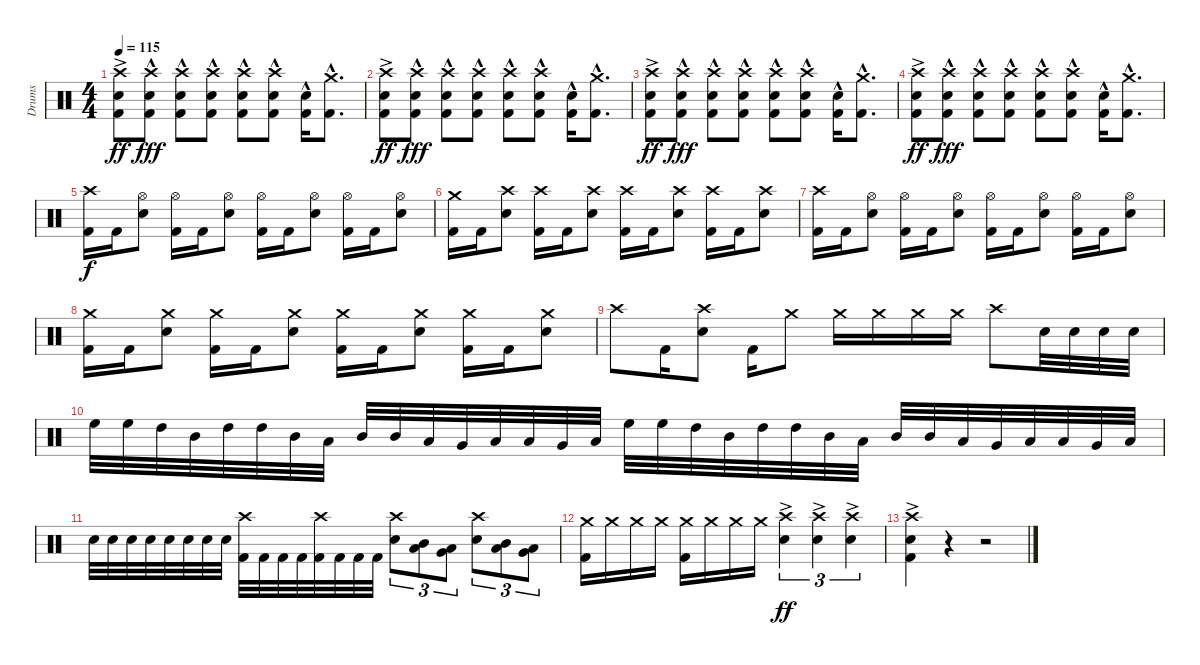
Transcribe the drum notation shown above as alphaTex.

\track ("Drums" "Drums") {instrument percussion}
\staff {score}
\articulation defaults
\ts (4 4)
\tempo 115
\clef neutral
\ks c
("Crash high (hit)" "Electric Snare (hit)" "Kick (hit) 2"{ac}).8{dy ff} ("Crash high (hit)" "Electric Snare (hit)" "Kick (hit) 2"{hac}).8{dy fff} ("Crash high (hit)" "Electric Snare (hit)" "Kick (hit) 2"{hac}).8 ("Crash high (hit)" "Electric Snare (hit)" "Kick (hit) 2"{hac}).8 ("Crash high (hit)" "Electric Snare (hit)" "Kick (hit) 2"{hac}).8 ("Crash high (hit)" "Electric Snare (hit)" "Kick (hit) 2"{hac}).8 ("Electric Snare (hit)" "Kick (hit) 2"{hac}).16 ("Crash medium (hit)" "Kick (hit) 2"{hac}).8{d} |
("Crash high (hit)" "Electric Snare (hit)" "Kick (hit) 2"{ac}).8{dy ff} ("Crash high (hit)" "Electric Snare (hit)" "Kick (hit) 2"{hac}).8{dy fff} ("Crash high (hit)" "Electric Snare (hit)" "Kick (hit) 2"{hac}).8 ("Crash high (hit)" "Electric Snare (hit)" "Kick (hit) 2"{hac}).8 ("Crash high (hit)" "Electric Snare (hit)" "Kick (hit) 2"{hac}).8 ("Crash high (hit)" "Electric Snare (hit)" "Kick (hit) 2"{hac}).8 ("Electric Snare (hit)" "Kick (hit) 2"{hac}).16 ("Crash medium (hit)" "Kick (hit) 2"{hac}).8{d} |
("Crash high (hit)" "Electric Snare (hit)" "Kick (hit) 2"{ac}).8{dy ff} ("Crash high (hit)" "Electric Snare (hit)" "Kick (hit) 2"{hac}).8{dy fff} ("Crash high (hit)" "Electric Snare (hit)" "Kick (hit) 2"{hac}).8 ("Crash high (hit)" "Electric Snare (hit)" "Kick (hit) 2"{hac}).8 ("Crash high (hit)" "Electric Snare (hit)" "Kick (hit) 2"{hac}).8 ("Crash high (hit)" "Electric Snare (hit)" "Kick (hit) 2"{hac}).8 ("Electric Snare (hit)" "Kick (hit) 2"{hac}).16 ("Crash medium (hit)" "Kick (hit) 2"{hac}).8{d} |
("Crash high (hit)" "Electric Snare (hit)" "Kick (hit) 2"{ac}).8{dy ff} ("Crash high (hit)" "Electric Snare (hit)" "Kick (hit) 2"{hac}).8{dy fff} ("Crash high (hit)" "Electric Snare (hit)" "Kick (hit) 2"{hac}).8 ("Crash high (hit)" "Electric Snare (hit)" "Kick (hit) 2"{hac}).8 ("Crash high (hit)" "Electric Snare (hit)" "Kick (hit) 2"{hac}).8 ("Crash high (hit)" "Electric Snare (hit)" "Kick (hit) 2"{hac}).8 ("Electric Snare (hit)" "Kick (hit) 2"{hac}).16 ("Crash medium (hit)" "Kick (hit) 2"{hac}).8{d} |
("Crash high (hit)" "Kick (hit) 2").16{dy f} "Kick (hit) 2".16 ("Hi-Hat (open)" "Electric Snare (hit)").8 ("Hi-Hat (open)" "Kick (hit) 2").16 "Kick (hit) 2".16 ("Hi-Hat (open)" "Electric Snare (hit)").8 ("Hi-Hat (open)" "Kick (hit) 2").16 "Kick (hit) 2".16 ("Hi-Hat (open)" "Electric Snare (hit)").8 ("Hi-Hat (open)" "Kick (hit) 2").16 "Kick (hit) 2".16 ("Hi-Hat (open)" "Electric Snare (hit)").8 |
("Crash medium (hit)" "Kick (hit) 2").16 "Kick (hit) 2".16 ("Crash high (hit)" "Electric Snare (hit)").8 ("Crash high (hit)" "Kick (hit) 2").16 "Kick (hit) 2".16 ("Crash high (hit)" "Electric Snare (hit)").8 ("Crash high (hit)" "Kick (hit) 2").16 "Kick (hit) 2".16 ("Crash high (hit)" "Electric Snare (hit)").8 ("Crash high (hit)" "Kick (hit) 2").16 "Kick (hit) 2".16 ("Crash high (hit)" "Electric Snare (hit)").8 |
("Crash high (hit)" "Kick (hit) 2").16 "Kick (hit) 2".16 ("Hi-Hat (open)" "Electric Snare (hit)").8 ("Hi-Hat (open)" "Kick (hit) 2").16 "Kick (hit) 2".16 ("Hi-Hat (open)" "Electric Snare (hit)").8 ("Hi-Hat (open)" "Kick (hit) 2").16 "Kick (hit) 2".16 ("Hi-Hat (open)" "Electric Snare (hit)").8 ("Hi-Hat (open)" "Kick (hit) 2").16 "Kick (hit) 2".16 ("Hi-Hat (open)" "Electric Snare (hit)").8 |
("Crash medium (hit)" "Kick (hit) 2").16 "Kick (hit) 2".16 ("Crash medium (hit)" "Electric Snare (hit)").8 ("Crash medium (hit)" "Kick (hit) 2").16 "Kick (hit) 2".16 ("Crash medium (hit)" "Electric Snare (hit)").8 ("Crash medium (hit)" "Kick (hit) 2").16 "Kick (hit) 2".16 ("Crash medium (hit)" "Electric Snare (hit)").8 ("Crash medium (hit)" "Kick (hit) 2").16 "Kick (hit) 2".16 ("Crash medium (hit)" "Electric Snare (hit)").8 |
"Crash high (hit)".8{volume 16} "Kick (hit) 2".16 ("Crash high (hit)" "Electric Snare (hit)").8 "Kick (hit) 2".16 "Crash medium (hit)".8 "Crash medium (hit)".16 "Crash medium (hit)".16 "Crash medium (hit)".16 "Crash medium (hit)".16 "Crash high (hit)".8 "Electric Snare (hit)".32 "Electric Snare (hit)".32 "Electric Snare (hit)".32 "Electric Snare (hit)".32 |
"High Floor Tom (hit)".32 "High Floor Tom (hit)".32 "High Tom (hit)".32 "Mid Tom (hit)".32 "High Tom (hit)".32 "High Tom (hit)".32 "Mid Tom (hit)".32 "Low Tom (hit)".32 "Mid Tom (hit)".32 "Mid Tom (hit)".32 "Low Tom (hit)".32 "Very Low Tom (hit)".32 "Low Tom (hit)".32 "Low Tom (hit)".32 "Very Low Tom (hit)".32 "Low Floor Tom (hit)".32 "High Floor Tom (hit)".32 "High Floor Tom (hit)".32 "High Tom (hit)".32 "Mid Tom (hit)".32 "High Tom (hit)".32 "High Tom (hit)".32 "Mid Tom (hit)".32 "Low Tom (hit)".32 "Mid Tom (hit)".32 "Mid Tom (hit)".32 "Low Tom (hit)".32 "Very Low Tom (hit)".32 "Low Tom (hit)".32 "Low Tom (hit)".32 "Very Low Tom (hit)".32 "Low Floor Tom (hit)".32 |
"Electric Snare (hit)".32 "Electric Snare (hit)".32 "Electric Snare (hit)".32 "Electric Snare (hit)".32 "Electric Snare (hit)".32 "Electric Snare (hit)".32 "Electric Snare (hit)".32 "Electric Snare (hit)".32 ("Crash high (hit)" "Kick (hit) 2").32 "Kick (hit) 2".32 "Kick (hit) 2".32 "Kick (hit) 2".32 ("Crash high (hit)" "Kick (hit) 2").32 "Kick (hit) 2".32 "Kick (hit) 2".32 "Kick (hit) 2".32 ("Crash high (hit)" "Electric Snare (hit)").8{tu (3 2)} ("Mid Tom (hit)" "Low Tom (hit)").8{tu (3 2)} ("Very Low Tom (hit)" "Low Floor Tom (hit)").8{tu (3 2)} ("Crash high (hit)" "Electric Snare (hit)").8{tu (3 2)} ("Mid Tom (hit)" "Low Tom (hit)").8{tu (3 2)} ("Very Low Tom (hit)" "Low Floor Tom (hit)").8{tu (3 2)} |
("Crash medium (hit)" "Kick (hit) 2").16 "Crash medium (hit)".16 "Crash medium (hit)".16 "Crash medium (hit)".16 ("Crash medium (hit)" "Kick (hit) 2").16 "Crash medium (hit)".16 "Crash medium (hit)".16 "Crash medium (hit)".16 ("Electric Snare (hit)"{ac} "Crash high (hit)"{ac}).4{tu (3 2) dy ff} ("Electric Snare (hit)"{ac} "Crash high (hit)"{ac}).4{tu (3 2)} ("Electric Snare (hit)"{ac} "Crash high (hit)"{ac}).4{tu (3 2)} |
("Crash high (hit)"{ac} "Electric Snare (hit)"{ac} "Kick (hit) 2"{ac}).4{volume 13} r.4 r.2
